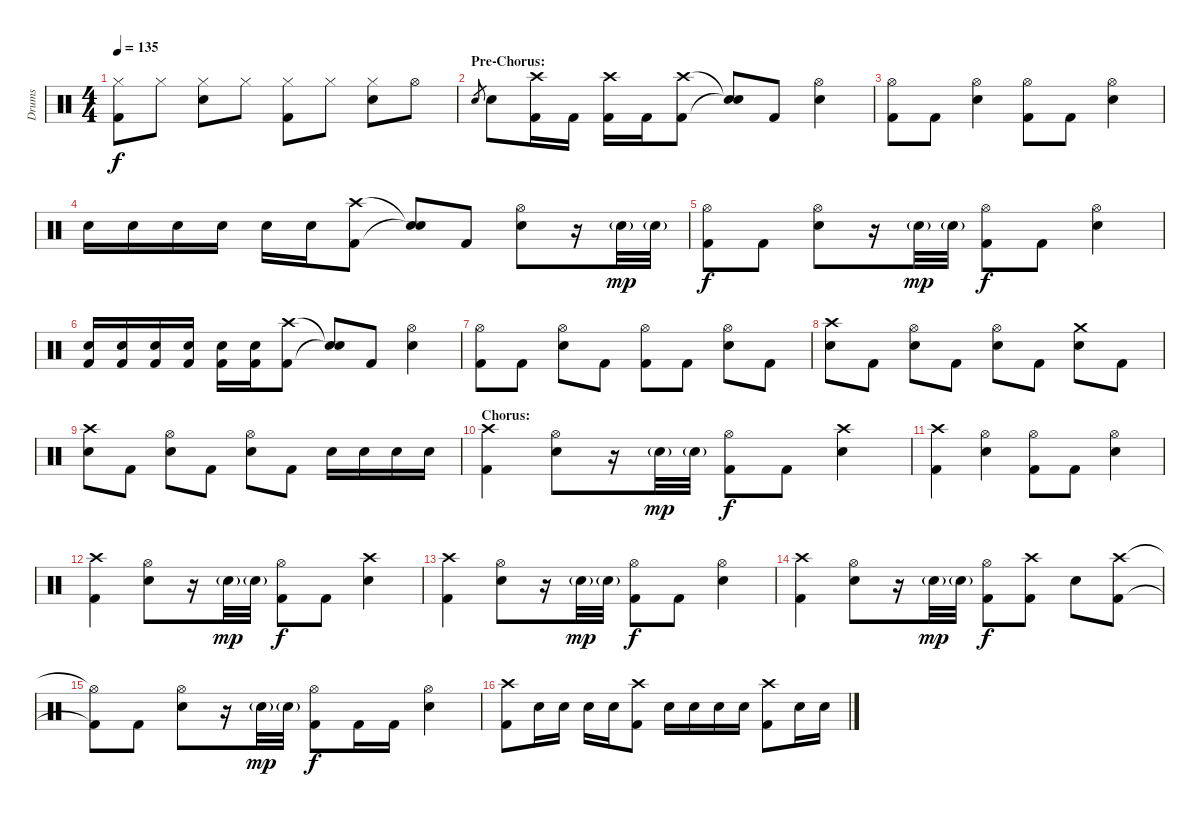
\track ("Drums" "Drums") {instrument percussion}
\staff {score}
\articulation defaults
\ts (4 4)
\tempo 135
\clef neutral
\ks c
("Hi-Hat (closed)" "Kick (hit) 2").8{dy f} "Hi-Hat (closed)".8 ("Hi-Hat (closed)" "Snare (hit) 2").8 "Hi-Hat (closed)".8 ("Hi-Hat (closed)" "Kick (hit) 2").8 "Hi-Hat (closed)".8 ("Hi-Hat (closed)" "Snare (hit) 2").8 "Hi-Hat (open)".8 |
\section ("" "Pre-Chorus:")
"Snare (hit) 2".8{gr} "Snare (hit) 2".8 ("Crash high (hit)" "Kick (hit) 2").16 "Kick (hit) 2".16 ("Crash high (hit)" "Kick (hit) 2").16 "Kick (hit) 2".16 ("Crash high (hit)" "Kick (hit) 2").8 ("Snare (hit)"{t} "Snare (hit)"{t}).8 "Kick (hit) 2".8 ("Hi-Hat (open)" "Snare (hit) 2").4 |
("Hi-Hat (open)" "Kick (hit) 2").8 "Kick (hit) 2".8 ("Hi-Hat (open)" "Snare (hit) 2").4 ("Hi-Hat (open)" "Kick (hit) 2").8 "Kick (hit) 2".8 ("Hi-Hat (open)" "Snare (hit) 2").4 |
"Snare (hit) 2".16 "Snare (hit) 2".16 "Snare (hit) 2".16 "Snare (hit) 2".16 "Snare (hit) 2".16 "Snare (hit) 2".16 ("Crash high (hit)" "Kick (hit) 2").8 ("Snare (hit)"{t} "Snare (hit)"{t}).8 "Kick (hit) 2".8 ("Hi-Hat (open)" "Snare (hit) 2").8 r.16 "Snare (hit) 2"{g}.32{dy mp} "Snare (hit) 2"{g}.32 |
("Hi-Hat (open)" "Kick (hit) 2").8{dy f} "Kick (hit) 2".8 ("Hi-Hat (open)" "Snare (hit) 2").8 r.16 "Snare (hit) 2"{g}.32{dy mp} "Snare (hit) 2"{g}.32 ("Hi-Hat (open)" "Kick (hit) 2").8{dy f} "Kick (hit) 2".8 ("Hi-Hat (open)" "Snare (hit) 2").4 |
("Snare (hit) 2" "Kick (hit) 2").16 ("Snare (hit) 2" "Kick (hit) 2").16 ("Snare (hit) 2" "Kick (hit) 2").16 ("Snare (hit) 2" "Kick (hit) 2").16 ("Snare (hit) 2" "Kick (hit) 2").16 ("Snare (hit) 2" "Kick (hit) 2").16 ("Crash high (hit)" "Kick (hit) 2").8 ("Snare (hit)"{t} "Snare (hit)"{t}).8 "Kick (hit) 2".8 ("Hi-Hat (open)" "Snare (hit) 2").4 |
("Hi-Hat (open)" "Kick (hit) 2").8 "Kick (hit) 2".8 ("Hi-Hat (open)" "Snare (hit) 2").8 "Kick (hit) 2".8 ("Hi-Hat (open)" "Kick (hit) 2").8 "Kick (hit) 2".8 ("Hi-Hat (open)" "Snare (hit) 2").8 "Kick (hit) 2".8 |
("Crash high (hit)" "Snare (hit) 2").8 "Kick (hit) 2".8 ("Hi-Hat (open)" "Snare (hit) 2").8 "Kick (hit) 2".8 ("Hi-Hat (open)" "Snare (hit) 2").8 "Kick (hit) 2".8 ("Crash medium (hit)" "Snare (hit) 2").8 "Kick (hit) 2".8 |
("Crash high (hit)" "Snare (hit) 2").8 "Kick (hit) 2".8 ("Hi-Hat (open)" "Snare (hit) 2").8 "Kick (hit) 2".8 ("Hi-Hat (open)" "Snare (hit) 2").8 "Kick (hit) 2".8 "Snare (hit) 2".16 "Snare (hit) 2".16 "Snare (hit) 2".16 "Snare (hit) 2".16 |
\section ("" "Chorus:")
("Crash high (hit)" "Kick (hit) 2").4 ("Hi-Hat (open)" "Snare (hit) 2").8 r.16 "Snare (hit) 2"{g}.32{dy mp} "Snare (hit) 2"{g}.32 ("Hi-Hat (open)" "Kick (hit) 2").8{dy f} "Kick (hit) 2".8 ("Crash high (hit)" "Snare (hit) 2").4 |
("Crash high (hit)" "Kick (hit) 2").4 ("Hi-Hat (open)" "Snare (hit) 2").4 ("Hi-Hat (open)" "Kick (hit) 2").8 "Kick (hit) 2".8 ("Hi-Hat (open)" "Snare (hit) 2").4 |
("Crash high (hit)" "Kick (hit) 2").4 ("Hi-Hat (open)" "Snare (hit) 2").8 r.16 "Snare (hit) 2"{g}.32{dy mp} "Snare (hit) 2"{g}.32 ("Hi-Hat (open)" "Kick (hit) 2").8{dy f} "Kick (hit) 2".8 ("Crash high (hit)" "Snare (hit) 2").4 |
("Crash high (hit)" "Kick (hit) 2").4 ("Hi-Hat (open)" "Snare (hit) 2").8 r.16 "Snare (hit) 2"{g}.32{dy mp} "Snare (hit) 2"{g}.32 ("Hi-Hat (open)" "Kick (hit) 2").8{dy f} "Kick (hit) 2".8 ("Hi-Hat (open)" "Snare (hit) 2").4 |
("Crash high (hit)" "Kick (hit) 2").4 ("Hi-Hat (open)" "Snare (hit) 2").8 r.16 "Snare (hit) 2"{g}.32{dy mp} "Snare (hit) 2"{g}.32 ("Hi-Hat (open)" "Kick (hit) 2").8{dy f} ("Crash high (hit)" "Kick (hit) 2").8 "Snare (hit) 2".8 ("Crash high (hit)" "Kick (hit) 2").8 |
("Hi-Hat (open)"{t} "Kick (hit) 2"{t}).8 "Kick (hit) 2".8 ("Hi-Hat (open)" "Snare (hit) 2").8 r.16 "Snare (hit) 2"{g}.32{dy mp} "Snare (hit) 2"{g}.32 ("Hi-Hat (open)" "Kick (hit) 2").8{dy f} "Kick (hit) 2".16 "Kick (hit) 2".16 ("Hi-Hat (open)" "Snare (hit) 2").4 |
("Crash high (hit)" "Kick (hit) 2").8 "Snare (hit) 2".16 "Snare (hit) 2".16 "Snare (hit) 2".16 "Snare (hit) 2".16 ("Crash high (hit)" "Kick (hit) 2").8 "Snare (hit) 2".16 "Snare (hit) 2".16 "Snare (hit) 2".16 "Snare (hit) 2".16 ("Crash high (hit)" "Kick (hit) 2").8 "Snare (hit) 2".16 "Snare (hit) 2".16
